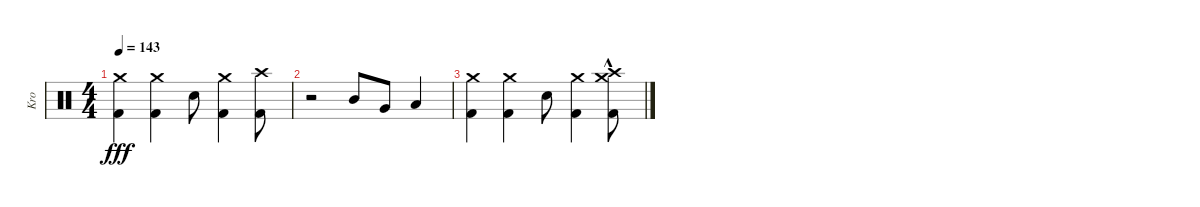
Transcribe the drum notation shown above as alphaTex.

\track ("Kro" "Kro") {instrument percussion}
\staff {score}
\articulation defaults
\ts (4 4)
\tempo 143
\clef neutral
\ks c
("Crash medium (hit)" "Kick (hit) 2").4{dy fff} ("Crash medium (hit)" "Kick (hit) 2").4 "Electric Snare (hit)".8 ("Crash medium (hit)" "Kick (hit) 2").4 ("Crash high (hit)" "Kick (hit) 2").8 |
r.2 "Mid Tom (hit)".8 "Very Low Tom (hit)".8 "Low Tom (hit)".4 |
("Crash medium (hit)" "Kick (hit) 2").4 ("Crash medium (hit)" "Kick (hit) 2").4 "Electric Snare (hit)".8 ("Crash medium (hit)" "Kick (hit) 2").4 ("Crash high (hit)"{hac} "Crash medium (hit)"{hac} "Kick (hit) 2"{hac}).8
